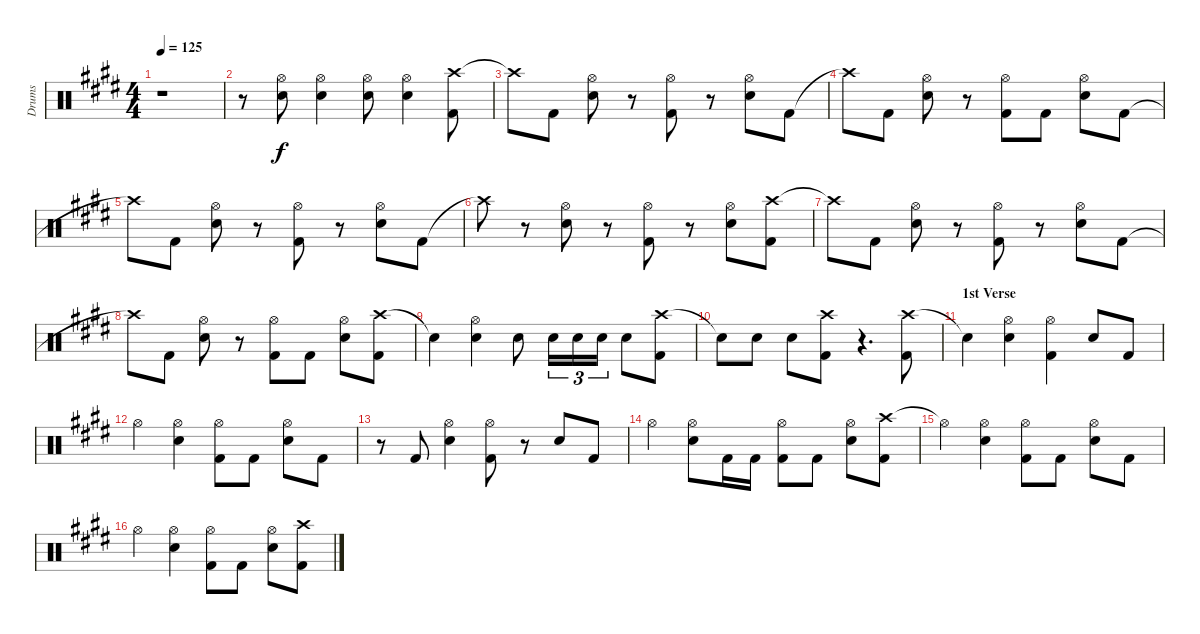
\track ("Drums" "Drums") {instrument percussion}
\staff {score}
\articulation defaults
\ts (4 4)
\tempo 125
\clef neutral
\ks e
r.1{dy f} |
r.8 ("Hi-Hat (open)" "Electric Snare (hit)").8 ("Hi-Hat (open)" "Electric Snare (hit)").4 ("Hi-Hat (open)" "Electric Snare (hit)").8 ("Hi-Hat (open)" "Electric Snare (hit)").4 ("Crash high (hit)" "Kick (hit) 2").8 |
"Crash high (hit)"{t}.8 "Kick (hit) 2".8 ("Hi-Hat (open)" "Electric Snare (hit)").8 r.8 ("Hi-Hat (open)" "Kick (hit) 2").8 r.8 ("Hi-Hat (open)" "Electric Snare (hit)").8 "Kick (hit) 2".8 |
"Crash high (hit)"{t}.8 "Kick (hit) 2".8 ("Hi-Hat (open)" "Electric Snare (hit)").8 r.8 ("Hi-Hat (open)" "Kick (hit) 2").8 "Kick (hit) 2".8 ("Hi-Hat (open)" "Electric Snare (hit)").8 "Kick (hit) 2".8 |
"Crash high (hit)"{t}.8 "Kick (hit) 2".8 ("Hi-Hat (open)" "Electric Snare (hit)").8 r.8 ("Hi-Hat (open)" "Kick (hit) 2").8 r.8 ("Hi-Hat (open)" "Electric Snare (hit)").8 "Kick (hit) 2".8 |
"Crash high (hit)"{t}.8 r.8 ("Hi-Hat (open)" "Electric Snare (hit)").8 r.8 ("Hi-Hat (open)" "Kick (hit) 2").8 r.8 ("Hi-Hat (open)" "Electric Snare (hit)").8 ("Crash high (hit)" "Kick (hit) 2").8 |
"Crash high (hit)"{t}.8 "Kick (hit) 2".8 ("Hi-Hat (open)" "Electric Snare (hit)").8 r.8 ("Hi-Hat (open)" "Kick (hit) 2").8 r.8 ("Hi-Hat (open)" "Electric Snare (hit)").8 "Kick (hit) 2".8 |
"Crash high (hit)"{t}.8 "Kick (hit) 2".8 ("Hi-Hat (open)" "Electric Snare (hit)").8 r.8 ("Hi-Hat (open)" "Kick (hit) 2").8 "Kick (hit) 2".8 ("Hi-Hat (open)" "Electric Snare (hit)").8 ("Crash high (hit)" "Kick (hit) 2").8 |
"Snare (hit)"{t}.4 ("Hi-Hat (open)" "Electric Snare (hit)").4 "Electric Snare (hit)".8 "Electric Snare (hit)".16{tu (3 2)} "Electric Snare (hit)".16{tu (3 2)} "Electric Snare (hit)".16{tu (3 2)} "Electric Snare (hit)".8 ("Crash high (hit)" "Kick (hit) 2").8 |
"Snare (hit)"{t}.8 "Electric Snare (hit)".8 "Electric Snare (hit)".8 ("Crash high (hit)" "Kick (hit) 2").8 r.4{d} ("Crash high (hit)" "Kick (hit) 2").8 |
\section ("" "1st Verse")
"Snare (hit)"{t}.4 ("Hi-Hat (open)" "Electric Snare (hit)").4 ("Hi-Hat (open)" "Kick (hit) 2").4 "Electric Snare (hit)".8 "Kick (hit) 2".8 |
"Hi-Hat (open)".4 ("Hi-Hat (open)" "Electric Snare (hit)").4 ("Hi-Hat (open)" "Kick (hit) 2").8 "Kick (hit) 2".8 ("Hi-Hat (open)" "Electric Snare (hit)").8 "Kick (hit) 2".8 |
r.8 "Kick (hit) 2".8 ("Hi-Hat (open)" "Electric Snare (hit)").4 ("Hi-Hat (open)" "Kick (hit) 2").8 r.8 "Electric Snare (hit)".8 "Kick (hit) 2".8 |
"Hi-Hat (open)".4 ("Hi-Hat (open)" "Electric Snare (hit)").8 "Kick (hit) 2".16 "Kick (hit) 2".16 ("Hi-Hat (open)" "Kick (hit) 2").8 "Kick (hit) 2".8 ("Hi-Hat (open)" "Electric Snare (hit)").8 ("Crash high (hit)" "Kick (hit) 2").8 |
"Hi-Hat (open)"{t}.4 ("Hi-Hat (open)" "Electric Snare (hit)").4 ("Hi-Hat (open)" "Kick (hit) 2").8 "Kick (hit) 2".8 ("Hi-Hat (open)" "Electric Snare (hit)").8 "Kick (hit) 2".8 |
"Hi-Hat (open)".4 ("Hi-Hat (open)" "Electric Snare (hit)").4 ("Hi-Hat (open)" "Kick (hit) 2").8 "Kick (hit) 2".8 ("Hi-Hat (open)" "Electric Snare (hit)").8 ("Crash high (hit)" "Kick (hit) 2").8
